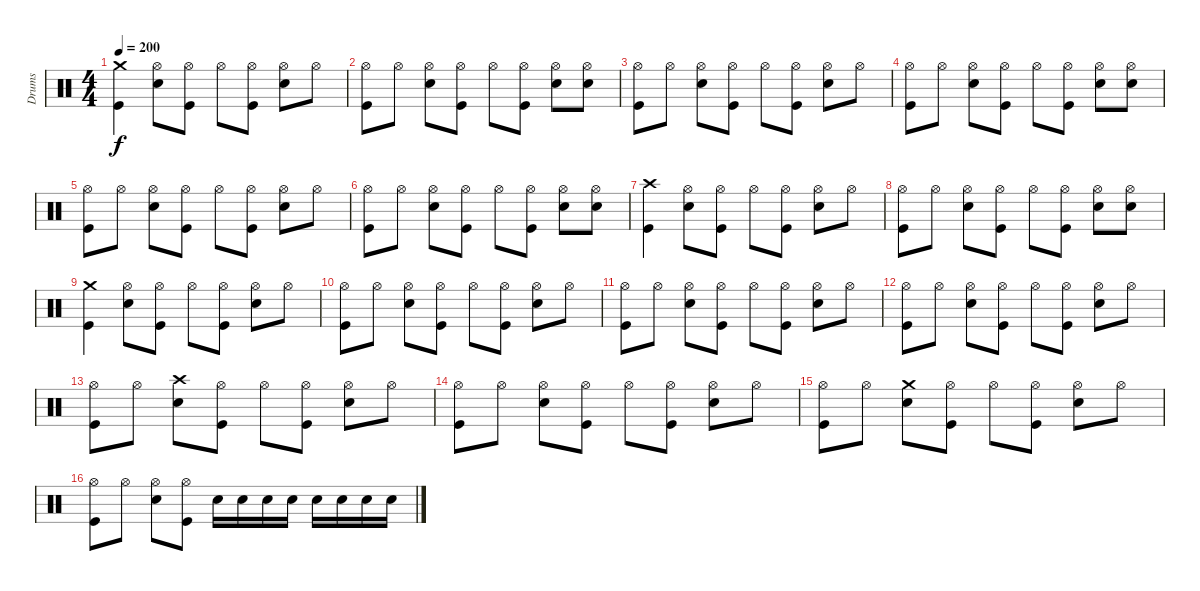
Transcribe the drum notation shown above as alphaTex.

\track ("Drums" "Drums") {instrument percussion}
\staff {score}
\articulation defaults
\ts (4 4)
\tempo 200
\clef neutral
\ks c
("Crash medium (hit)" "Kick (hit)").4{dy f} ("Hi-Hat (open)" "Snare (hit) 2").8 ("Hi-Hat (open)" "Kick (hit)").8 "Hi-Hat (open)".8 ("Hi-Hat (open)" "Kick (hit)").8 ("Hi-Hat (open)" "Snare (hit) 2").8 "Hi-Hat (open)".8 |
("Hi-Hat (open)" "Kick (hit)").8 "Hi-Hat (open)".8 ("Hi-Hat (open)" "Snare (hit) 2").8 ("Hi-Hat (open)" "Kick (hit)").8 "Hi-Hat (open)".8 ("Hi-Hat (open)" "Kick (hit)").8 ("Hi-Hat (open)" "Snare (hit) 2").8 ("Hi-Hat (open)" "Snare (hit) 2").8 |
("Hi-Hat (open)" "Kick (hit)").8 "Hi-Hat (open)".8 ("Hi-Hat (open)" "Snare (hit) 2").8 ("Hi-Hat (open)" "Kick (hit)").8 "Hi-Hat (open)".8 ("Hi-Hat (open)" "Kick (hit)").8 ("Hi-Hat (open)" "Snare (hit) 2").8 "Hi-Hat (open)".8 |
("Hi-Hat (open)" "Kick (hit)").8 "Hi-Hat (open)".8 ("Hi-Hat (open)" "Snare (hit) 2").8 ("Hi-Hat (open)" "Kick (hit)").8 "Hi-Hat (open)".8 ("Hi-Hat (open)" "Kick (hit)").8 ("Hi-Hat (open)" "Snare (hit) 2").8 ("Hi-Hat (open)" "Snare (hit) 2").8 |
("Hi-Hat (open)" "Kick (hit)").8 "Hi-Hat (open)".8 ("Hi-Hat (open)" "Snare (hit) 2").8 ("Hi-Hat (open)" "Kick (hit)").8 "Hi-Hat (open)".8 ("Hi-Hat (open)" "Kick (hit)").8 ("Hi-Hat (open)" "Snare (hit) 2").8 "Hi-Hat (open)".8 |
("Hi-Hat (open)" "Kick (hit)").8 "Hi-Hat (open)".8 ("Hi-Hat (open)" "Snare (hit) 2").8 ("Hi-Hat (open)" "Kick (hit)").8 "Hi-Hat (open)".8 ("Hi-Hat (open)" "Kick (hit)").8 ("Hi-Hat (open)" "Snare (hit) 2").8 ("Hi-Hat (open)" "Snare (hit) 2").8 |
("Crash high (hit)" "Kick (hit)").4 ("Hi-Hat (open)" "Snare (hit) 2").8 ("Hi-Hat (open)" "Kick (hit)").8 "Hi-Hat (open)".8 ("Hi-Hat (open)" "Kick (hit)").8 ("Hi-Hat (open)" "Snare (hit) 2").8 "Hi-Hat (open)".8 |
("Hi-Hat (open)" "Kick (hit)").8 "Hi-Hat (open)".8 ("Hi-Hat (open)" "Snare (hit) 2").8 ("Hi-Hat (open)" "Kick (hit)").8 "Hi-Hat (open)".8 ("Hi-Hat (open)" "Kick (hit)").8 ("Hi-Hat (open)" "Snare (hit) 2").8 ("Hi-Hat (open)" "Snare (hit) 2").8 |
("Crash medium (hit)" "Kick (hit)").4 ("Hi-Hat (open)" "Snare (hit) 2").8 ("Hi-Hat (open)" "Kick (hit)").8 "Hi-Hat (open)".8 ("Hi-Hat (open)" "Kick (hit)").8 ("Hi-Hat (open)" "Snare (hit) 2").8 "Hi-Hat (open)".8 |
("Hi-Hat (open)" "Kick (hit)").8 "Hi-Hat (open)".8 ("Hi-Hat (open)" "Snare (hit) 2").8 ("Hi-Hat (open)" "Kick (hit)").8 "Hi-Hat (open)".8 ("Hi-Hat (open)" "Kick (hit)").8 ("Hi-Hat (open)" "Snare (hit) 2").8 "Hi-Hat (open)".8 |
("Hi-Hat (open)" "Kick (hit)").8 "Hi-Hat (open)".8 ("Hi-Hat (open)" "Snare (hit) 2").8 ("Hi-Hat (open)" "Kick (hit)").8 "Hi-Hat (open)".8 ("Hi-Hat (open)" "Kick (hit)").8 ("Hi-Hat (open)" "Snare (hit) 2").8 "Hi-Hat (open)".8 |
("Hi-Hat (open)" "Kick (hit)").8 "Hi-Hat (open)".8 ("Hi-Hat (open)" "Snare (hit) 2").8 ("Hi-Hat (open)" "Kick (hit)").8 "Hi-Hat (open)".8 ("Hi-Hat (open)" "Kick (hit)").8 ("Hi-Hat (open)" "Snare (hit) 2").8 "Hi-Hat (open)".8 |
("Hi-Hat (open)" "Kick (hit)").8 "Hi-Hat (open)".8 ("Crash high (hit)" "Snare (hit) 2").8 ("Hi-Hat (open)" "Kick (hit)").8 "Hi-Hat (open)".8 ("Hi-Hat (open)" "Kick (hit)").8 ("Hi-Hat (open)" "Snare (hit) 2").8 "Hi-Hat (open)".8 |
("Hi-Hat (open)" "Kick (hit)").8 "Hi-Hat (open)".8 ("Hi-Hat (open)" "Snare (hit) 2").8 ("Hi-Hat (open)" "Kick (hit)").8 "Hi-Hat (open)".8 ("Hi-Hat (open)" "Kick (hit)").8 ("Hi-Hat (open)" "Snare (hit) 2").8 "Hi-Hat (open)".8 |
("Hi-Hat (open)" "Kick (hit)").8 "Hi-Hat (open)".8 ("Crash medium (hit)" "Snare (hit) 2").8 ("Hi-Hat (open)" "Kick (hit)").8 "Hi-Hat (open)".8 ("Hi-Hat (open)" "Kick (hit)").8 ("Hi-Hat (open)" "Snare (hit) 2").8 "Hi-Hat (open)".8 |
("Hi-Hat (open)" "Kick (hit)").8 "Hi-Hat (open)".8 ("Hi-Hat (open)" "Snare (hit) 2").8 ("Hi-Hat (open)" "Kick (hit)").8 "Snare (hit) 2".16 "Snare (hit) 2".16 "Snare (hit) 2".16 "Snare (hit) 2".16 "Snare (hit) 2".16 "Snare (hit) 2".16 "Snare (hit) 2".16 "Snare (hit) 2".16
